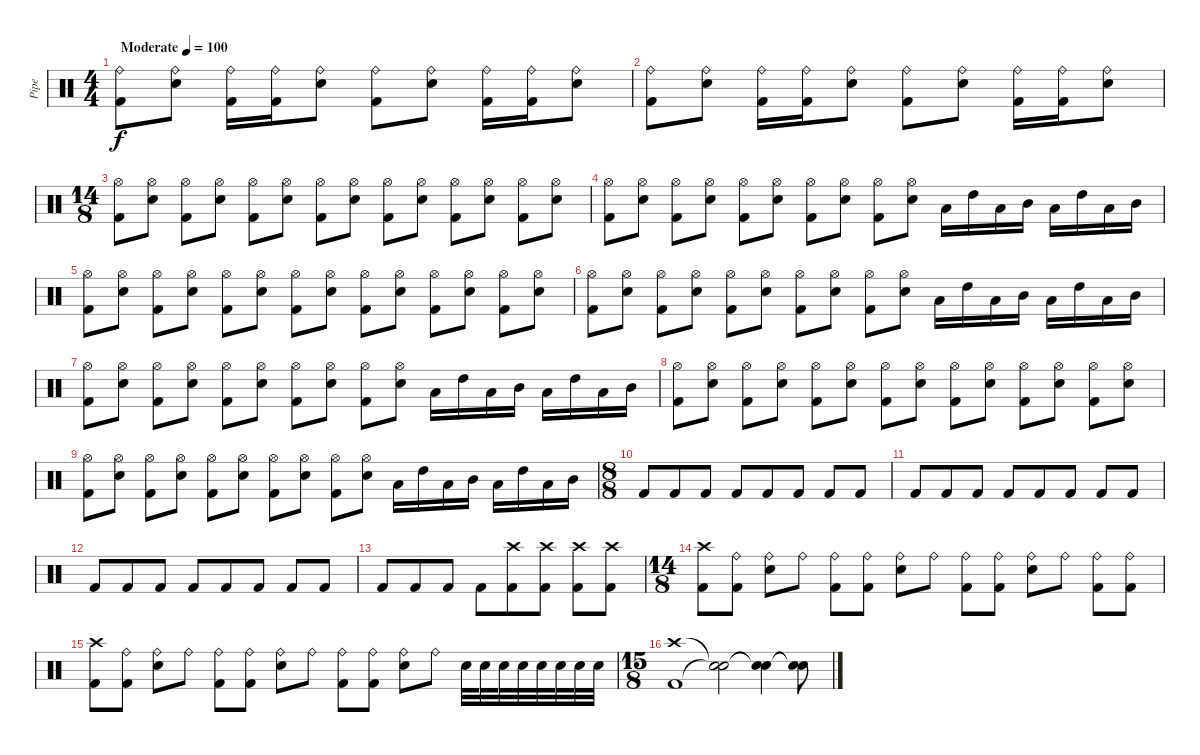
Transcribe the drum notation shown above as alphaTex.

\track ("Pipe" "Pipe") {instrument percussion}
\staff {score}
\articulation defaults
\ts (4 4)
\tempo (100 "Moderate")
\clef neutral
\ks c
("Kick (hit) 2" "Ride (bell)").8{dy f} ("Snare (hit) 2" "Ride (bell)").8 ("Kick (hit) 2" "Ride (bell)").16 ("Kick (hit) 2" "Ride (bell)").16 ("Snare (hit) 2" "Ride (bell)").8 ("Kick (hit) 2" "Ride (bell)").8 ("Snare (hit) 2" "Ride (bell)").8 ("Kick (hit) 2" "Ride (bell)").16 ("Kick (hit) 2" "Ride (bell)").16 ("Snare (hit) 2" "Ride (bell)").8 |
("Kick (hit) 2" "Ride (bell)").8 ("Snare (hit) 2" "Ride (bell)").8 ("Kick (hit) 2" "Ride (bell)").16 ("Kick (hit) 2" "Ride (bell)").16 ("Snare (hit) 2" "Ride (bell)").8 ("Kick (hit) 2" "Ride (bell)").8 ("Snare (hit) 2" "Ride (bell)").8 ("Kick (hit) 2" "Ride (bell)").16 ("Kick (hit) 2" "Ride (bell)").16 ("Snare (hit) 2" "Ride (bell)").8 |
\ts (14 8)
("Kick (hit) 2" "Hi-Hat (open)").8 ("Snare (hit) 2" "Hi-Hat (open)").8 ("Kick (hit) 2" "Hi-Hat (open)").8 ("Snare (hit) 2" "Hi-Hat (open)").8 ("Kick (hit) 2" "Hi-Hat (open)").8 ("Snare (hit) 2" "Hi-Hat (open)").8 ("Kick (hit) 2" "Hi-Hat (open)").8 ("Snare (hit) 2" "Hi-Hat (open)").8 ("Kick (hit) 2" "Hi-Hat (open)").8 ("Snare (hit) 2" "Hi-Hat (open)").8 ("Kick (hit) 2" "Hi-Hat (open)").8 ("Snare (hit) 2" "Hi-Hat (open)").8 ("Kick (hit) 2" "Hi-Hat (open)").8 ("Snare (hit) 2" "Hi-Hat (open)").8 |
("Kick (hit) 2" "Hi-Hat (open)").8 ("Snare (hit) 2" "Hi-Hat (open)").8 ("Kick (hit) 2" "Hi-Hat (open)").8 ("Snare (hit) 2" "Hi-Hat (open)").8 ("Kick (hit) 2" "Hi-Hat (open)").8 ("Snare (hit) 2" "Hi-Hat (open)").8 ("Kick (hit) 2" "Hi-Hat (open)").8 ("Snare (hit) 2" "Hi-Hat (open)").8 ("Kick (hit) 2" "Hi-Hat (open)").8 ("Snare (hit) 2" "Hi-Hat (open)").8 "Low Tom (hit)".16 "High Tom (hit)".16 "Low Tom (hit)".16 "Mid Tom (hit)".16 "Low Tom (hit)".16 "High Tom (hit)".16 "Low Tom (hit)".16 "Mid Tom (hit)".16 |
("Kick (hit) 2" "Hi-Hat (open)").8 ("Snare (hit) 2" "Hi-Hat (open)").8 ("Kick (hit) 2" "Hi-Hat (open)").8 ("Snare (hit) 2" "Hi-Hat (open)").8 ("Kick (hit) 2" "Hi-Hat (open)").8 ("Snare (hit) 2" "Hi-Hat (open)").8 ("Kick (hit) 2" "Hi-Hat (open)").8 ("Snare (hit) 2" "Hi-Hat (open)").8 ("Kick (hit) 2" "Hi-Hat (open)").8 ("Snare (hit) 2" "Hi-Hat (open)").8 ("Kick (hit) 2" "Hi-Hat (open)").8 ("Snare (hit) 2" "Hi-Hat (open)").8 ("Kick (hit) 2" "Hi-Hat (open)").8 ("Snare (hit) 2" "Hi-Hat (open)").8 |
("Kick (hit) 2" "Hi-Hat (open)").8 ("Snare (hit) 2" "Hi-Hat (open)").8 ("Kick (hit) 2" "Hi-Hat (open)").8 ("Snare (hit) 2" "Hi-Hat (open)").8 ("Kick (hit) 2" "Hi-Hat (open)").8 ("Snare (hit) 2" "Hi-Hat (open)").8 ("Kick (hit) 2" "Hi-Hat (open)").8 ("Snare (hit) 2" "Hi-Hat (open)").8 ("Kick (hit) 2" "Hi-Hat (open)").8 ("Snare (hit) 2" "Hi-Hat (open)").8 "Low Tom (hit)".16 "High Tom (hit)".16 "Low Tom (hit)".16 "Mid Tom (hit)".16 "Low Tom (hit)".16 "High Tom (hit)".16 "Low Tom (hit)".16 "Mid Tom (hit)".16 |
("Kick (hit) 2" "Hi-Hat (open)").8 ("Snare (hit) 2" "Hi-Hat (open)").8 ("Kick (hit) 2" "Hi-Hat (open)").8 ("Snare (hit) 2" "Hi-Hat (open)").8 ("Kick (hit) 2" "Hi-Hat (open)").8 ("Snare (hit) 2" "Hi-Hat (open)").8 ("Kick (hit) 2" "Hi-Hat (open)").8 ("Snare (hit) 2" "Hi-Hat (open)").8 ("Kick (hit) 2" "Hi-Hat (open)").8 ("Snare (hit) 2" "Hi-Hat (open)").8 "Low Tom (hit)".16 "High Tom (hit)".16 "Low Tom (hit)".16 "Mid Tom (hit)".16 "Low Tom (hit)".16 "High Tom (hit)".16 "Low Tom (hit)".16 "Mid Tom (hit)".16 |
("Kick (hit) 2" "Hi-Hat (open)").8 ("Snare (hit) 2" "Hi-Hat (open)").8 ("Kick (hit) 2" "Hi-Hat (open)").8 ("Snare (hit) 2" "Hi-Hat (open)").8 ("Kick (hit) 2" "Hi-Hat (open)").8 ("Snare (hit) 2" "Hi-Hat (open)").8 ("Kick (hit) 2" "Hi-Hat (open)").8 ("Snare (hit) 2" "Hi-Hat (open)").8 ("Kick (hit) 2" "Hi-Hat (open)").8 ("Snare (hit) 2" "Hi-Hat (open)").8 ("Kick (hit) 2" "Hi-Hat (open)").8 ("Snare (hit) 2" "Hi-Hat (open)").8 ("Kick (hit) 2" "Hi-Hat (open)").8 ("Snare (hit) 2" "Hi-Hat (open)").8 |
("Kick (hit) 2" "Hi-Hat (open)").8 ("Snare (hit) 2" "Hi-Hat (open)").8 ("Kick (hit) 2" "Hi-Hat (open)").8 ("Snare (hit) 2" "Hi-Hat (open)").8 ("Kick (hit) 2" "Hi-Hat (open)").8 ("Snare (hit) 2" "Hi-Hat (open)").8 ("Kick (hit) 2" "Hi-Hat (open)").8 ("Snare (hit) 2" "Hi-Hat (open)").8 ("Kick (hit) 2" "Hi-Hat (open)").8 ("Snare (hit) 2" "Hi-Hat (open)").8 "Low Tom (hit)".16 "High Tom (hit)".16 "Low Tom (hit)".16 "Mid Tom (hit)".16 "Low Tom (hit)".16 "High Tom (hit)".16 "Low Tom (hit)".16 "Mid Tom (hit)".16 |
\ts (8 8)
"Kick (hit) 2".8 "Kick (hit) 2".8 "Kick (hit) 2".8 "Kick (hit) 2".8 "Kick (hit) 2".8 "Kick (hit) 2".8 "Kick (hit) 2".8 "Kick (hit) 2".8 |
"Kick (hit) 2".8 "Kick (hit) 2".8 "Kick (hit) 2".8 "Kick (hit) 2".8 "Kick (hit) 2".8 "Kick (hit) 2".8 "Kick (hit) 2".8 "Kick (hit) 2".8 |
"Kick (hit) 2".8 "Kick (hit) 2".8 "Kick (hit) 2".8 "Kick (hit) 2".8 "Kick (hit) 2".8 "Kick (hit) 2".8 "Kick (hit) 2".8 "Kick (hit) 2".8 |
"Kick (hit) 2".8 "Kick (hit) 2".8 "Kick (hit) 2".8 "Kick (hit) 2".8 ("Crash high (hit)" "Kick (hit) 2").8 ("Crash high (hit)" "Kick (hit) 2").8 ("Crash high (hit)" "Kick (hit) 2").8 ("Crash high (hit)" "Kick (hit) 2").8 |
\ts (14 8)
("Kick (hit) 2" "Crash high (hit)").8 ("Kick (hit) 2" "Ride (bell)").8 ("Snare (hit) 2" "Ride (bell)").8 "Ride (bell)".8 ("Kick (hit) 2" "Ride (bell)").8 ("Kick (hit) 2" "Ride (bell)").8 ("Snare (hit) 2" "Ride (bell)").8 "Ride (bell)".8 ("Kick (hit) 2" "Ride (bell)").8 ("Kick (hit) 2" "Ride (bell)").8 ("Snare (hit) 2" "Ride (bell)").8 "Ride (bell)".8 ("Kick (hit) 2" "Ride (bell)").8 ("Kick (hit) 2" "Ride (bell)").8 |
("Kick (hit) 2" "Crash high (hit)").8 ("Kick (hit) 2" "Ride (bell)").8 ("Snare (hit) 2" "Ride (bell)").8 "Ride (bell)".8 ("Kick (hit) 2" "Ride (bell)").8 ("Kick (hit) 2" "Ride (bell)").8 ("Snare (hit) 2" "Ride (bell)").8 "Ride (bell)".8 ("Kick (hit) 2" "Ride (bell)").8 ("Kick (hit) 2" "Ride (bell)").8 ("Snare (hit) 2" "Ride (bell)").8 "Ride (bell)".8 "Snare (hit) 2".32{beam splitsecondary} "Snare (hit) 2".32{beam splitsecondary} "Snare (hit) 2".32 "Snare (hit) 2".32 "Snare (hit) 2".32{beam splitsecondary} "Snare (hit) 2".32{beam splitsecondary} "Snare (hit) 2".32 "Snare (hit) 2".32 |
\ts (15 8)
("Kick (hit) 2" "Crash high (hit)").1 ("Snare (hit)"{t} "Snare (hit)"{t}).2 ("Snare (hit)"{t} "Snare (hit)"{t}).4 ("Snare (hit)"{t} "Snare (hit)"{t}).8
